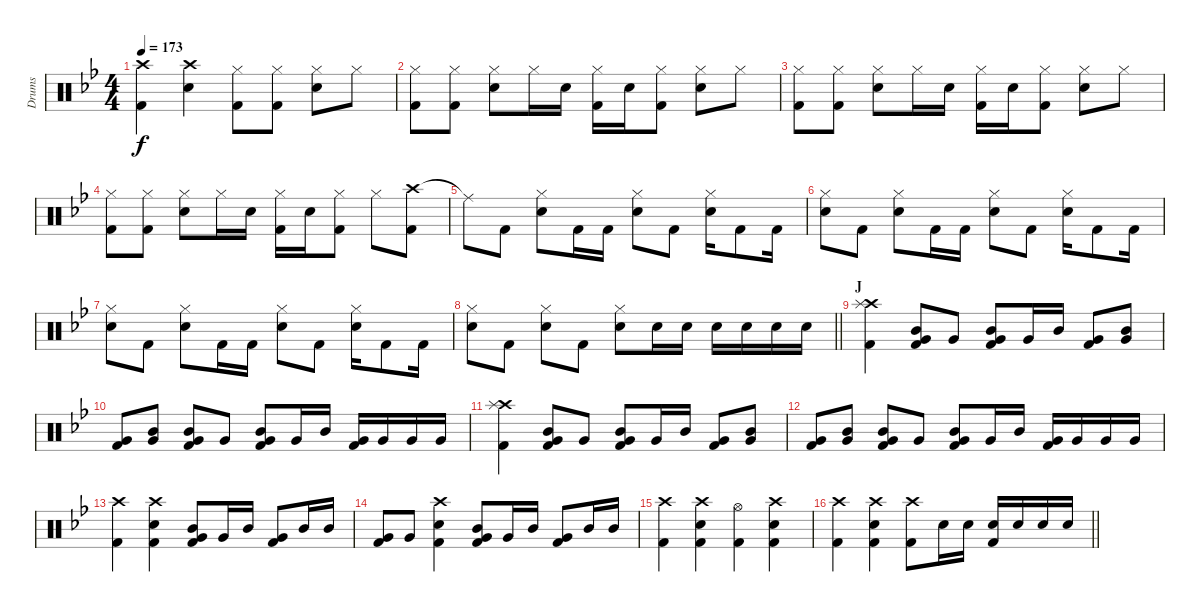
\track ("Drums" "Drums") {instrument percussion}
\staff {score}
\articulation defaults
\ts (4 4)
\tempo 173
\clef neutral
\ks bb
("Crash high (hit)" "Kick (hit) 2").4{dy f} ("Crash high (hit)" "Snare (hit) 2").4 ("Hi-Hat (closed)" "Kick (hit) 2").8 ("Hi-Hat (closed)" "Kick (hit) 2").8 ("Hi-Hat (closed)" "Snare (hit) 2").8 "Hi-Hat (closed)".8 |
("Hi-Hat (closed)" "Kick (hit) 2").8 ("Hi-Hat (closed)" "Kick (hit) 2").8 ("Hi-Hat (closed)" "Snare (hit) 2").8 "Hi-Hat (closed)".16 "Snare (hit) 2".16 ("Hi-Hat (closed)" "Kick (hit) 2").16 "Snare (hit) 2".16 ("Hi-Hat (closed)" "Kick (hit) 2").8 ("Hi-Hat (closed)" "Snare (hit) 2").8 "Hi-Hat (closed)".8 |
("Hi-Hat (closed)" "Kick (hit) 2").8 ("Hi-Hat (closed)" "Kick (hit) 2").8 ("Hi-Hat (closed)" "Snare (hit) 2").8 "Hi-Hat (closed)".16 "Snare (hit) 2".16 ("Hi-Hat (closed)" "Kick (hit) 2").16 "Snare (hit) 2".16 ("Hi-Hat (closed)" "Kick (hit) 2").8 ("Hi-Hat (closed)" "Snare (hit) 2").8 "Hi-Hat (closed)".8 |
("Hi-Hat (closed)" "Kick (hit) 2").8 ("Hi-Hat (closed)" "Kick (hit) 2").8 ("Hi-Hat (closed)" "Snare (hit) 2").8 "Hi-Hat (closed)".16 "Snare (hit) 2".16 ("Hi-Hat (closed)" "Kick (hit) 2").16 "Snare (hit) 2".16 ("Hi-Hat (closed)" "Kick (hit) 2").8 "Hi-Hat (closed)".8 ("Crash high (hit)" "Kick (hit) 2").8 |
"Ride (middle)"{t}.8 "Kick (hit) 2".8 ("Hi-Hat (closed)" "Snare (hit) 2").8 "Kick (hit) 2".16 "Kick (hit) 2".16 ("Hi-Hat (closed)" "Snare (hit) 2").8 "Kick (hit) 2".8 ("Hi-Hat (closed)" "Snare (hit) 2").16 "Kick (hit) 2".8 "Kick (hit) 2".16 |
("Hi-Hat (closed)" "Snare (hit) 2").8 "Kick (hit) 2".8 ("Hi-Hat (closed)" "Snare (hit) 2").8 "Kick (hit) 2".16 "Kick (hit) 2".16 ("Hi-Hat (closed)" "Snare (hit) 2").8 "Kick (hit) 2".8 ("Hi-Hat (closed)" "Snare (hit) 2").16 "Kick (hit) 2".8 "Kick (hit) 2".16 |
("Hi-Hat (closed)" "Snare (hit) 2").8 "Kick (hit) 2".8 ("Hi-Hat (closed)" "Snare (hit) 2").8 "Kick (hit) 2".16 "Kick (hit) 2".16 ("Hi-Hat (closed)" "Snare (hit) 2").8 "Kick (hit) 2".8 ("Hi-Hat (closed)" "Snare (hit) 2").16 "Kick (hit) 2".8 "Kick (hit) 2".16 |
\barLineRight lightlight
("Hi-Hat (closed)" "Snare (hit) 2").8 "Kick (hit) 2".8 ("Hi-Hat (closed)" "Snare (hit) 2").8 "Kick (hit) 2".8 ("Hi-Hat (closed)" "Snare (hit) 2").8 "Snare (hit) 2".16 "Snare (hit) 2".16 "Snare (hit) 2".16 "Snare (hit) 2".16 "Snare (hit) 2".16 "Snare (hit) 2".16 |
\section ("" "J")
("Crash high (hit)" "Splash (hit)" "Kick (hit) 2").4 ("Mid Tom (hit)" "Very Low Tom (hit)" "Kick (hit) 2").8 "Very Low Tom (hit)".8 ("Mid Tom (hit)" "Very Low Tom (hit)" "Kick (hit) 2").8 "Very Low Tom (hit)".16 "Mid Tom (hit)".16 ("Very Low Tom (hit)" "Kick (hit) 2").8 ("Mid Tom (hit)" "Very Low Tom (hit)").8 |
("Very Low Tom (hit)" "Kick (hit) 2").8 ("Mid Tom (hit)" "Very Low Tom (hit)").8 ("Mid Tom (hit)" "Very Low Tom (hit)" "Kick (hit) 2").8 "Very Low Tom (hit)".8 ("Mid Tom (hit)" "Very Low Tom (hit)" "Kick (hit) 2").8 "Very Low Tom (hit)".16 "Mid Tom (hit)".16 ("Very Low Tom (hit)" "Kick (hit) 2").16 "Very Low Tom (hit)".16 "Very Low Tom (hit)".16 "Very Low Tom (hit)".16 |
("Crash high (hit)" "Splash (hit)" "Kick (hit) 2").4 ("Mid Tom (hit)" "Very Low Tom (hit)" "Kick (hit) 2").8 "Very Low Tom (hit)".8 ("Mid Tom (hit)" "Very Low Tom (hit)" "Kick (hit) 2").8 "Very Low Tom (hit)".16 "Mid Tom (hit)".16 ("Very Low Tom (hit)" "Kick (hit) 2").8 ("Mid Tom (hit)" "Very Low Tom (hit)").8 |
("Very Low Tom (hit)" "Kick (hit) 2").8 ("Mid Tom (hit)" "Very Low Tom (hit)").8 ("Mid Tom (hit)" "Very Low Tom (hit)" "Kick (hit) 2").8 "Very Low Tom (hit)".8 ("Mid Tom (hit)" "Very Low Tom (hit)" "Kick (hit) 2").8 "Very Low Tom (hit)".16 "Mid Tom (hit)".16 ("Very Low Tom (hit)" "Kick (hit) 2").16 "Very Low Tom (hit)".16 "Very Low Tom (hit)".16 "Very Low Tom (hit)".16 |
("Crash high (hit)" "Kick (hit) 2").4 ("Crash high (hit)" "Snare (hit) 2" "Kick (hit) 2").4 ("Mid Tom (hit)" "Very Low Tom (hit)" "Kick (hit) 2").8 "Very Low Tom (hit)".16 "Mid Tom (hit)".16 ("Very Low Tom (hit)" "Kick (hit) 2").8 "Mid Tom (hit)".16 "Mid Tom (hit)".16 |
("Very Low Tom (hit)" "Kick (hit) 2").8 "Very Low Tom (hit)".8 ("Crash high (hit)" "Snare (hit) 2" "Kick (hit) 2").4 ("Mid Tom (hit)" "Very Low Tom (hit)" "Kick (hit) 2").8 "Very Low Tom (hit)".16 "Mid Tom (hit)".16 ("Very Low Tom (hit)" "Kick (hit) 2").8 "Mid Tom (hit)".16 "Mid Tom (hit)".16 |
("Crash high (hit)" "Kick (hit) 2").4 ("Crash high (hit)" "Snare (hit) 2" "Kick (hit) 2").4 ("Hi-Hat (open)" "Kick (hit) 2").4 ("Crash high (hit)" "Snare (hit) 2" "Kick (hit) 2").4 |
\barLineRight lightlight
("Crash high (hit)" "Kick (hit) 2").4 ("Crash high (hit)" "Snare (hit) 2" "Kick (hit) 2").4 ("Crash high (hit)" "Kick (hit) 2").8 "Snare (hit) 2".16 "Snare (hit) 2".16 ("Snare (hit) 2" "Kick (hit) 2").16 "Snare (hit) 2".16 "Snare (hit) 2".16 "Snare (hit) 2".16
